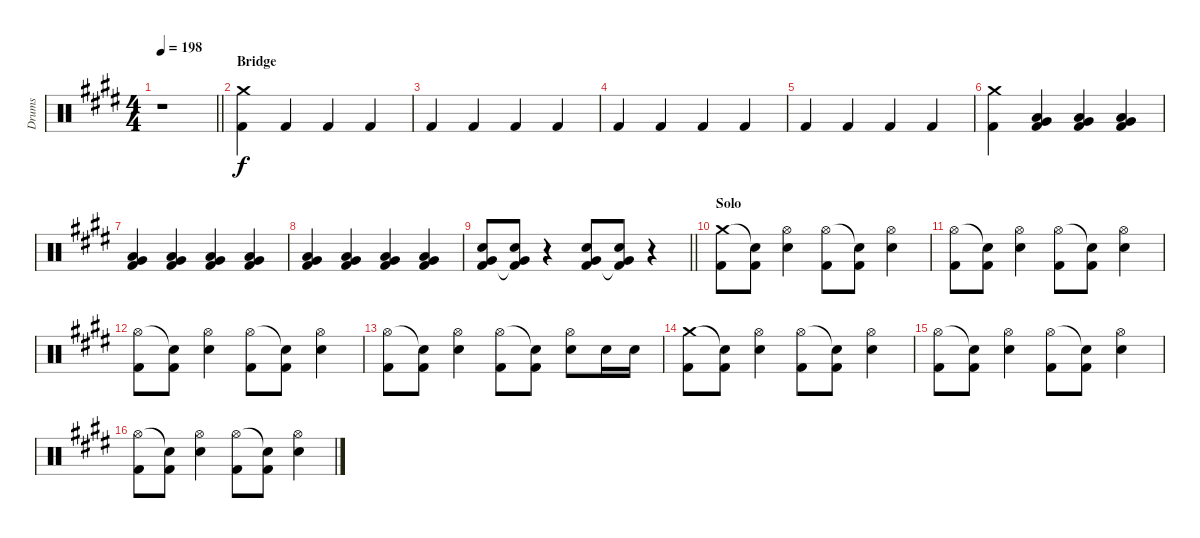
\track ("Drums" "Drums") {instrument percussion}
\staff {score}
\articulation defaults
\ts (4 4)
\tempo 198
\clef neutral
\barLineRight lightlight
\ks c#minor
r.1{dy f} |
\section ("" "Bridge")
("Crash medium (hit)" "Kick (hit) 2").4 "Kick (hit) 2".4 "Kick (hit) 2".4 "Kick (hit) 2".4 |
"Kick (hit) 2".4 "Kick (hit) 2".4 "Kick (hit) 2".4 "Kick (hit) 2".4 |
"Kick (hit) 2".4 "Kick (hit) 2".4 "Kick (hit) 2".4 "Kick (hit) 2".4 |
"Kick (hit) 2".4 "Kick (hit) 2".4 "Kick (hit) 2".4 "Kick (hit) 2".4 |
("Crash medium (hit)" "Kick (hit) 2").4 ("Very Low Tom (hit)" "Low Floor Tom (hit)" "Kick (hit) 2").4 ("Very Low Tom (hit)" "Low Floor Tom (hit)" "Kick (hit) 2").4 ("Very Low Tom (hit)" "Low Floor Tom (hit)" "Kick (hit) 2").4 |
("Very Low Tom (hit)" "Low Floor Tom (hit)" "Kick (hit) 2").4 ("Very Low Tom (hit)" "Low Floor Tom (hit)" "Kick (hit) 2").4 ("Very Low Tom (hit)" "Low Floor Tom (hit)" "Kick (hit) 2").4 ("Very Low Tom (hit)" "Low Floor Tom (hit)" "Kick (hit) 2").4 |
("Very Low Tom (hit)" "Low Floor Tom (hit)" "Kick (hit) 2").4 ("Very Low Tom (hit)" "Low Floor Tom (hit)" "Kick (hit) 2").4 ("Very Low Tom (hit)" "Low Floor Tom (hit)" "Kick (hit) 2").4 ("Very Low Tom (hit)" "Low Floor Tom (hit)" "Kick (hit) 2").4 |
\barLineRight lightlight
("Electric Snare (hit)" "Very Low Tom (hit)" "Kick (hit) 2").8 ("Electric Snare (hit)" "Very Low Tom (hit)" "Kick (hit) 2"{t}).8 r.4 ("Electric Snare (hit)" "Very Low Tom (hit)" "Kick (hit) 2").8 ("Electric Snare (hit)" "Very Low Tom (hit)" "Kick (hit) 2"{t}).8 r.4 |
\section ("" "Solo")
("Crash medium (hit)" "Kick (hit) 2").8 ("Snare (hit)"{t} "Kick (hit) 2").8 ("Hi-Hat (open)" "Electric Snare (hit)").4 ("Hi-Hat (open)" "Kick (hit) 2").8 ("Snare (hit)"{t} "Kick (hit) 2").8 ("Hi-Hat (open)" "Electric Snare (hit)").4 |
("Hi-Hat (open)" "Kick (hit) 2").8 ("Snare (hit)"{t} "Kick (hit) 2").8 ("Hi-Hat (open)" "Electric Snare (hit)").4 ("Hi-Hat (open)" "Kick (hit) 2").8 ("Snare (hit)"{t} "Kick (hit) 2").8 ("Hi-Hat (open)" "Electric Snare (hit)").4 |
("Hi-Hat (open)" "Kick (hit) 2").8 ("Snare (hit)"{t} "Kick (hit) 2").8 ("Hi-Hat (open)" "Electric Snare (hit)").4 ("Hi-Hat (open)" "Kick (hit) 2").8 ("Snare (hit)"{t} "Kick (hit) 2").8 ("Hi-Hat (open)" "Electric Snare (hit)").4 |
("Hi-Hat (open)" "Kick (hit) 2").8 ("Snare (hit)"{t} "Kick (hit) 2").8 ("Hi-Hat (open)" "Electric Snare (hit)").4 ("Hi-Hat (open)" "Kick (hit) 2").8 ("Snare (hit)"{t} "Kick (hit) 2").8 ("Hi-Hat (open)" "Electric Snare (hit)").8 "Electric Snare (hit)".16 "Electric Snare (hit)".16 |
("Crash medium (hit)" "Kick (hit) 2").8 ("Snare (hit)"{t} "Kick (hit) 2").8 ("Hi-Hat (open)" "Electric Snare (hit)").4 ("Hi-Hat (open)" "Kick (hit) 2").8 ("Snare (hit)"{t} "Kick (hit) 2").8 ("Hi-Hat (open)" "Electric Snare (hit)").4 |
("Hi-Hat (open)" "Kick (hit) 2").8 ("Snare (hit)"{t} "Kick (hit) 2").8 ("Hi-Hat (open)" "Electric Snare (hit)").4 ("Hi-Hat (open)" "Kick (hit) 2").8 ("Snare (hit)"{t} "Kick (hit) 2").8 ("Hi-Hat (open)" "Electric Snare (hit)").4 |
("Hi-Hat (open)" "Kick (hit) 2").8 ("Snare (hit)"{t} "Kick (hit) 2").8 ("Hi-Hat (open)" "Electric Snare (hit)").4 ("Hi-Hat (open)" "Kick (hit) 2").8 ("Snare (hit)"{t} "Kick (hit) 2").8 ("Hi-Hat (open)" "Electric Snare (hit)").4
